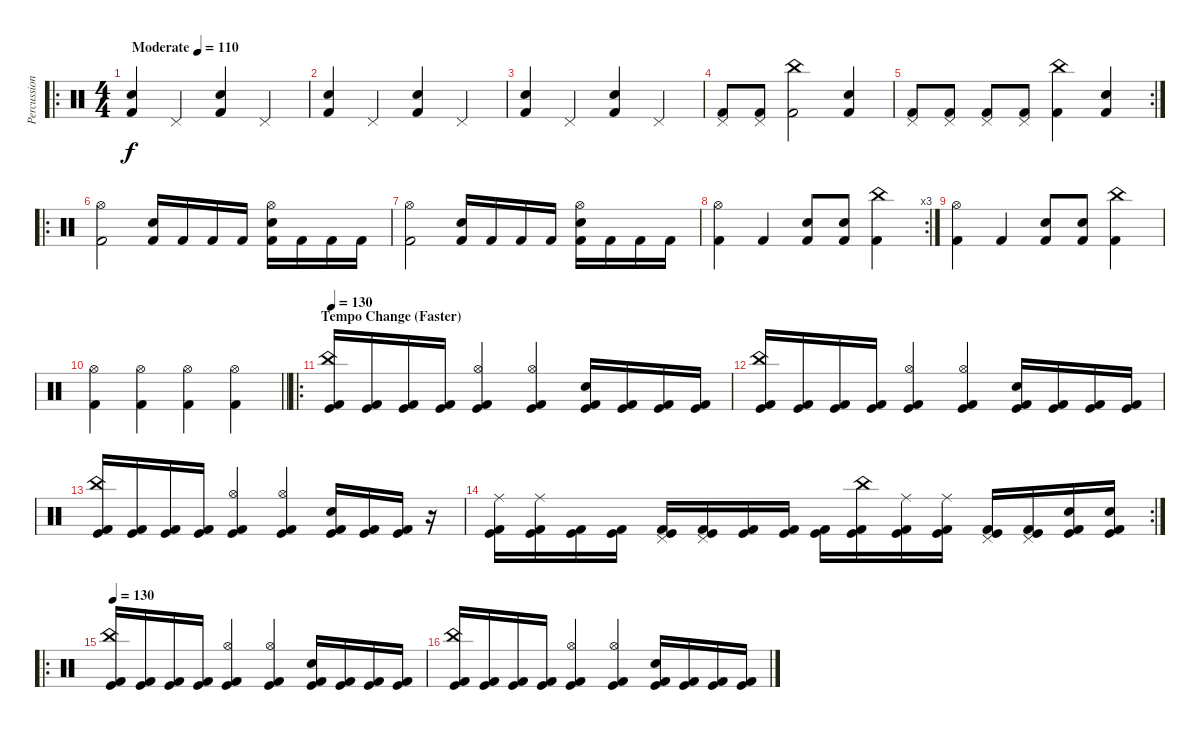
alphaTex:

\track ("Percussion" "Percussion") {instrument percussion}
\staff {score}
\articulation defaults
\ro
\ts (4 4)
\tempo (110 "Moderate")
\clef neutral
\ks c
("Snare (hit) 2" "Kick (hit) 2").4{dy f} "Pedal Hi-Hat (hit)".4 ("Snare (hit) 2" "Kick (hit) 2").4 "Pedal Hi-Hat (hit)".4 |
("Snare (hit) 2" "Kick (hit) 2").4 "Pedal Hi-Hat (hit)".4 ("Snare (hit) 2" "Kick (hit) 2").4 "Pedal Hi-Hat (hit)".4 |
("Snare (hit) 2" "Kick (hit) 2").4 "Pedal Hi-Hat (hit)".4 ("Snare (hit) 2" "Kick (hit) 2").4 "Pedal Hi-Hat (hit)".4 |
("Pedal Hi-Hat (hit)" "Kick (hit) 2").8 ("Pedal Hi-Hat (hit)" "Kick (hit) 2").8 ("China (hit)" "Kick (hit) 2").2 ("Snare (hit) 2" "Kick (hit) 2").4 |
\rc 2
("Pedal Hi-Hat (hit)" "Kick (hit) 2").8 ("Pedal Hi-Hat (hit)" "Kick (hit) 2").8 ("Pedal Hi-Hat (hit)" "Kick (hit) 2").8 ("Pedal Hi-Hat (hit)" "Kick (hit) 2").8 ("China (hit)" "Kick (hit) 2").4 ("Snare (hit) 2" "Kick (hit) 2").4 |
\ro
("Hi-Hat (open)" "Kick (hit) 2").2 ("Snare (hit) 2" "Kick (hit) 2").16 "Kick (hit) 2".16 "Kick (hit) 2".16 "Kick (hit) 2".16 ("Hi-Hat (open)" "Snare (hit) 2" "Kick (hit) 2").16 "Kick (hit) 2".16 "Kick (hit) 2".16 "Kick (hit) 2".16 |
("Hi-Hat (open)" "Kick (hit) 2").2 ("Snare (hit) 2" "Kick (hit) 2").16 "Kick (hit) 2".16 "Kick (hit) 2".16 "Kick (hit) 2".16 ("Hi-Hat (open)" "Snare (hit) 2" "Kick (hit) 2").16 "Kick (hit) 2".16 "Kick (hit) 2".16 "Kick (hit) 2".16 |
\rc 3
("Hi-Hat (open)" "Kick (hit) 2").4 "Kick (hit) 2".4 ("Snare (hit) 2" "Kick (hit) 2").8 ("Snare (hit) 2" "Kick (hit) 2").8 ("China (hit)" "Kick (hit) 2").4 |
("Hi-Hat (open)" "Kick (hit) 2").4 "Kick (hit) 2".4 ("Snare (hit) 2" "Kick (hit) 2").8 ("Snare (hit) 2" "Kick (hit) 2").8 ("China (hit)" "Kick (hit) 2").4 |
\barLineRight lightlight
("Hi-Hat (open)" "Kick (hit) 2").4 ("Kick (hit) 2" "Hi-Hat (open)").4 ("Kick (hit) 2" "Hi-Hat (open)").4 ("Kick (hit) 2" "Hi-Hat (open)").4 |
\ro
\section ("" "Tempo Change (Faster)")
\tempo 130
("China (hit)" "Kick (hit) 2" "Kick (hit)").16 ("Kick (hit) 2" "Kick (hit)").16 ("Kick (hit) 2" "Kick (hit)").16 ("Kick (hit) 2" "Kick (hit)").16 ("Hi-Hat (open)" "Kick (hit) 2" "Kick (hit)").4 ("Hi-Hat (open)" "Kick (hit) 2" "Kick (hit)").4 ("Snare (hit) 2" "Kick (hit) 2" "Kick (hit)").16 ("Kick (hit) 2" "Kick (hit)").16 ("Kick (hit) 2" "Kick (hit)").16 ("Kick (hit) 2" "Kick (hit)").16 |
("China (hit)" "Kick (hit) 2" "Kick (hit)").16 ("Kick (hit) 2" "Kick (hit)").16 ("Kick (hit) 2" "Kick (hit)").16 ("Kick (hit) 2" "Kick (hit)").16 ("Hi-Hat (open)" "Kick (hit) 2" "Kick (hit)").4 ("Hi-Hat (open)" "Kick (hit) 2" "Kick (hit)").4 ("Snare (hit) 2" "Kick (hit) 2" "Kick (hit)").16 ("Kick (hit) 2" "Kick (hit)").16 ("Kick (hit) 2" "Kick (hit)").16 ("Kick (hit) 2" "Kick (hit)").16 |
("China (hit)" "Kick (hit) 2" "Kick (hit)").16 ("Kick (hit) 2" "Kick (hit)").16 ("Kick (hit) 2" "Kick (hit)").16 ("Kick (hit) 2" "Kick (hit)").16 ("Hi-Hat (open)" "Kick (hit) 2" "Kick (hit)").4 ("Hi-Hat (open)" "Kick (hit) 2" "Kick (hit)").4 ("Snare (hit) 2" "Kick (hit) 2" "Kick (hit)").16 ("Kick (hit) 2" "Kick (hit)").16 ("Kick (hit) 2" "Kick (hit)").16 r.16 |
\rc 2
("Ride (middle)" "Kick (hit)" "Kick (hit) 2").16 ("Ride (middle)" "Kick (hit)" "Kick (hit) 2").16 ("Kick (hit)" "Kick (hit) 2").16 ("Kick (hit)" "Kick (hit) 2").16 ("Pedal Hi-Hat (hit)" "Kick (hit)" "Kick (hit) 2").16 ("Pedal Hi-Hat (hit)" "Kick (hit)" "Kick (hit) 2").16 ("Kick (hit)" "Kick (hit) 2").16 ("Kick (hit)" "Kick (hit) 2").16 ("Kick (hit)" "Kick (hit) 2").16 ("China (hit)" "Kick (hit)" "Kick (hit) 2").16 ("Ride (middle)" "Kick (hit)" "Kick (hit) 2").16 ("Ride (middle)" "Kick (hit)" "Kick (hit) 2").16 ("Pedal Hi-Hat (hit)" "Kick (hit)" "Kick (hit) 2").16 ("Pedal Hi-Hat (hit)" "Kick (hit)" "Kick (hit) 2").16 ("Snare (hit) 2" "Kick (hit)" "Kick (hit) 2").16 ("Snare (hit) 2" "Kick (hit)" "Kick (hit) 2").16 |
\ro
\tempo 130
("China (hit)" "Kick (hit) 2" "Kick (hit)").16 ("Kick (hit) 2" "Kick (hit)").16 ("Kick (hit) 2" "Kick (hit)").16 ("Kick (hit) 2" "Kick (hit)").16 ("Hi-Hat (open)" "Kick (hit) 2" "Kick (hit)").4 ("Hi-Hat (open)" "Kick (hit) 2" "Kick (hit)").4 ("Snare (hit) 2" "Kick (hit) 2" "Kick (hit)").16 ("Kick (hit) 2" "Kick (hit)").16 ("Kick (hit) 2" "Kick (hit)").16 ("Kick (hit) 2" "Kick (hit)").16 |
("China (hit)" "Kick (hit) 2" "Kick (hit)").16 ("Kick (hit) 2" "Kick (hit)").16 ("Kick (hit) 2" "Kick (hit)").16 ("Kick (hit) 2" "Kick (hit)").16 ("Hi-Hat (open)" "Kick (hit) 2" "Kick (hit)").4 ("Hi-Hat (open)" "Kick (hit) 2" "Kick (hit)").4 ("Snare (hit) 2" "Kick (hit) 2" "Kick (hit)").16 ("Kick (hit) 2" "Kick (hit)").16 ("Kick (hit) 2" "Kick (hit)").16 ("Kick (hit) 2" "Kick (hit)").16
